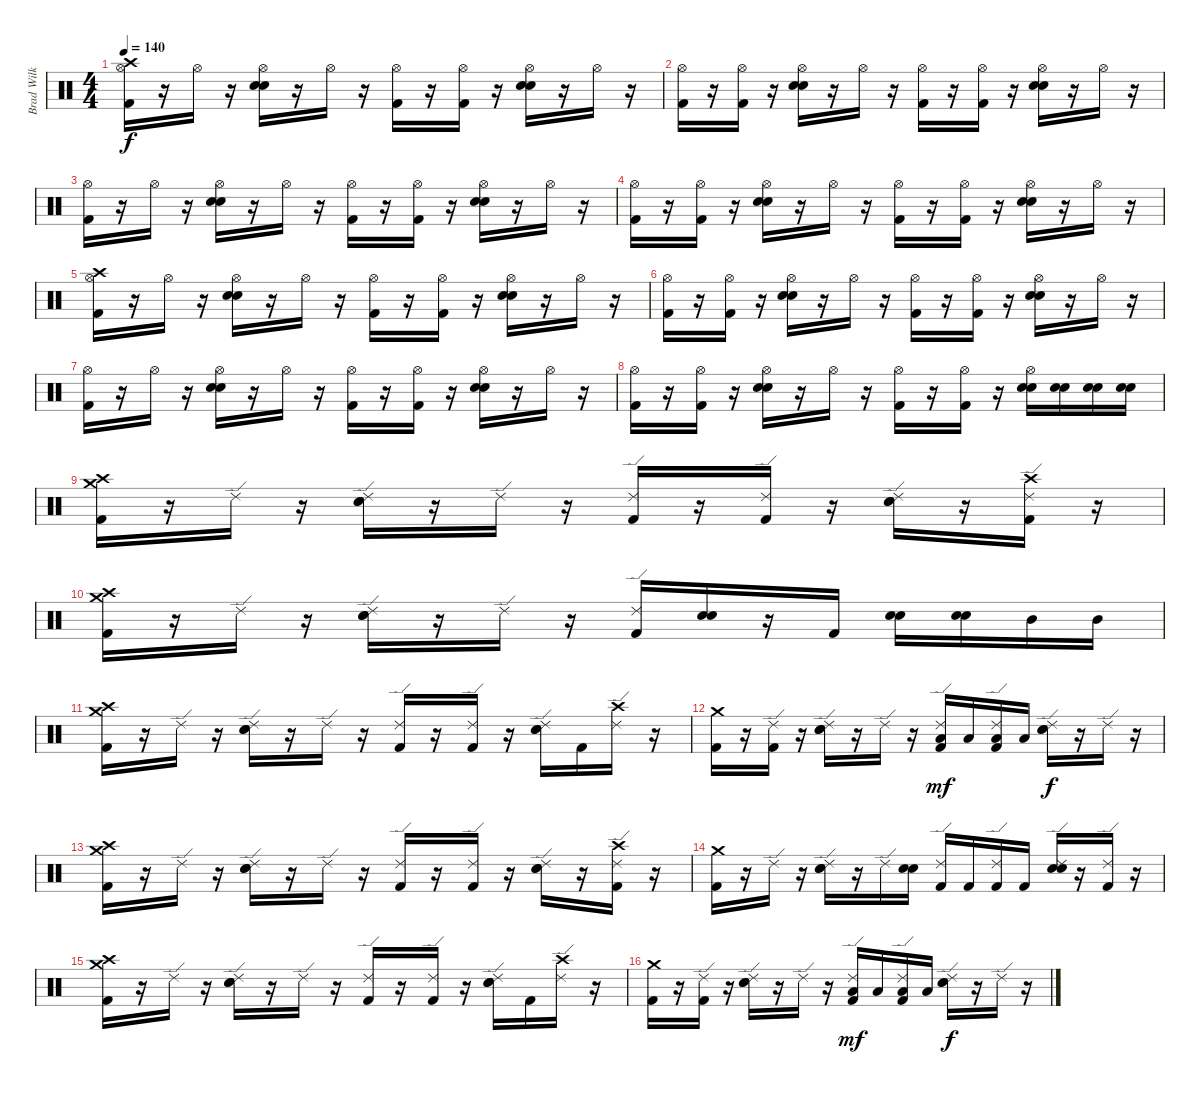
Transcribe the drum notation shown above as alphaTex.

\track ("Brad Wilk" "Brad Wilk") {instrument percussion}
\staff {score}
\articulation defaults
\ts (4 4)
\tempo 140
\clef neutral
\ks c
("Hi-Hat (open)" "Crash high (hit)" "Kick (hit) 2").16{dy f} r.16 "Hi-Hat (open)".16 r.16 ("Hi-Hat (open)" "Electric Snare (hit)" "Snare (hit) 2").16 r.16 "Hi-Hat (open)".16 r.16 ("Hi-Hat (open)" "Kick (hit) 2").16 r.16 ("Hi-Hat (open)" "Kick (hit) 2").16 r.16 ("Hi-Hat (open)" "Electric Snare (hit)" "Snare (hit) 2").16 r.16 "Hi-Hat (open)".16 r.16 |
("Hi-Hat (open)" "Kick (hit) 2").16 r.16 ("Hi-Hat (open)" "Kick (hit) 2").16 r.16 ("Hi-Hat (open)" "Electric Snare (hit)" "Snare (hit) 2").16 r.16 "Hi-Hat (open)".16 r.16 ("Hi-Hat (open)" "Kick (hit) 2").16 r.16 ("Hi-Hat (open)" "Kick (hit) 2").16 r.16 ("Hi-Hat (open)" "Electric Snare (hit)" "Snare (hit) 2").16 r.16 "Hi-Hat (open)".16 r.16 |
("Hi-Hat (open)" "Kick (hit) 2").16 r.16 "Hi-Hat (open)".16 r.16 ("Hi-Hat (open)" "Electric Snare (hit)" "Snare (hit) 2").16 r.16 "Hi-Hat (open)".16 r.16 ("Hi-Hat (open)" "Kick (hit) 2").16 r.16 ("Hi-Hat (open)" "Kick (hit) 2").16 r.16 ("Hi-Hat (open)" "Electric Snare (hit)" "Snare (hit) 2").16 r.16 "Hi-Hat (open)".16 r.16 |
("Hi-Hat (open)" "Kick (hit) 2").16 r.16 ("Hi-Hat (open)" "Kick (hit) 2").16 r.16 ("Hi-Hat (open)" "Electric Snare (hit)" "Snare (hit) 2").16 r.16 "Hi-Hat (open)".16 r.16 ("Hi-Hat (open)" "Kick (hit) 2").16 r.16 ("Hi-Hat (open)" "Kick (hit) 2").16 r.16 ("Hi-Hat (open)" "Electric Snare (hit)" "Snare (hit) 2").16 r.16 "Hi-Hat (open)".16 r.16 |
("Hi-Hat (open)" "Crash high (hit)" "Kick (hit) 2").16 r.16 "Hi-Hat (open)".16 r.16 ("Hi-Hat (open)" "Electric Snare (hit)" "Snare (hit) 2").16 r.16 "Hi-Hat (open)".16 r.16 ("Hi-Hat (open)" "Kick (hit) 2").16 r.16 ("Hi-Hat (open)" "Kick (hit) 2").16 r.16 ("Hi-Hat (open)" "Electric Snare (hit)" "Snare (hit) 2").16 r.16 "Hi-Hat (open)".16 r.16 |
("Hi-Hat (open)" "Kick (hit) 2").16 r.16 ("Hi-Hat (open)" "Kick (hit) 2").16 r.16 ("Hi-Hat (open)" "Electric Snare (hit)" "Snare (hit) 2").16 r.16 "Hi-Hat (open)".16 r.16 ("Hi-Hat (open)" "Kick (hit) 2").16 r.16 ("Hi-Hat (open)" "Kick (hit) 2").16 r.16 ("Hi-Hat (open)" "Electric Snare (hit)" "Snare (hit) 2").16 r.16 "Hi-Hat (open)".16 r.16 |
("Hi-Hat (open)" "Kick (hit) 2").16 r.16 "Hi-Hat (open)".16 r.16 ("Hi-Hat (open)" "Electric Snare (hit)" "Snare (hit) 2").16 r.16 "Hi-Hat (open)".16 r.16 ("Hi-Hat (open)" "Kick (hit) 2").16 r.16 ("Hi-Hat (open)" "Kick (hit) 2").16 r.16 ("Hi-Hat (open)" "Electric Snare (hit)" "Snare (hit) 2").16 r.16 "Hi-Hat (open)".16 r.16 |
("Hi-Hat (open)" "Kick (hit) 2").16 r.16 ("Hi-Hat (open)" "Kick (hit) 2").16 r.16 ("Hi-Hat (open)" "Electric Snare (hit)" "Snare (hit) 2").16 r.16 "Hi-Hat (open)".16 r.16 ("Hi-Hat (open)" "Kick (hit) 2").16 r.16 ("Hi-Hat (open)" "Kick (hit) 2").16 r.16 ("Hi-Hat (open)" "Electric Snare (hit)" "Snare (hit) 2").16 ("Electric Snare (hit)" "Snare (hit) 2").16 ("Electric Snare (hit)" "Snare (hit) 2").16 ("Electric Snare (hit)" "Snare (hit) 2").16 |
("Crash medium (hit)" "Crash high (hit)" "Kick (hit) 2").16 r.16 "Ride (edge) 2".16 r.16 ("Ride (edge) 2" "Electric Snare (hit)" "Snare (hit) 2").16 r.16 "Ride (edge) 2".16 r.16 ("Ride (edge) 2" "Kick (hit) 2").16 r.16 ("Ride (edge) 2" "Kick (hit) 2").16 r.16 ("Ride (edge) 2" "Electric Snare (hit)" "Snare (hit) 2").16 r.16 ("Ride (edge) 2" "Crash high (hit)" "Kick (hit) 2").16 r.16 |
("Crash medium (hit)" "Crash high (hit)" "Kick (hit) 2").16 r.16 "Ride (edge) 2".16 r.16 ("Ride (edge) 2" "Electric Snare (hit)" "Snare (hit) 2").16 r.16 "Ride (edge) 2".16 r.16 ("Ride (edge) 2" "Kick (hit) 2").16 ("Electric Snare (hit)" "Snare (hit) 2").16 r.16 "Kick (hit) 2".16 ("Electric Snare (hit)" "Snare (hit) 2").16 ("Electric Snare (hit)" "Electric Snare (hit)").16 "Mid Tom (hit)".16 "Mid Tom (hit)".16 |
("Crash medium (hit)" "Crash high (hit)" "Kick (hit) 2").16 r.16 "Ride (edge) 2".16 r.16 ("Ride (edge) 2" "Electric Snare (hit)" "Snare (hit) 2").16 r.16 "Ride (edge) 2".16 r.16 ("Ride (edge) 2" "Kick (hit) 2").16 r.16 ("Ride (edge) 2" "Kick (hit) 2").16 r.16 ("Ride (edge) 2" "Electric Snare (hit)" "Snare (hit) 2").16 "Kick (hit) 2".16 ("Ride (edge) 2" "Crash high (hit)").16 r.16 |
("Crash medium (hit)" "Kick (hit) 2").16 r.16 ("Ride (edge) 2" "Kick (hit) 2").16 r.16 ("Ride (edge) 2" "Electric Snare (hit)" "Snare (hit) 2").16 r.16 "Ride (edge) 2".16 r.16 ("Ride (edge) 2" "Low Tom (hit)" "Kick (hit) 2").16{dy mf} "Low Tom (hit)".16 ("Ride (edge) 2" "Low Tom (hit)" "Kick (hit) 2").16 "Low Tom (hit)".16 ("Ride (edge) 2" "Electric Snare (hit)" "Snare (hit) 2").16{dy f} r.16 "Ride (edge) 2".16 r.16 |
("Crash medium (hit)" "Crash high (hit)" "Kick (hit) 2").16 r.16 "Ride (edge) 2".16 r.16 ("Ride (edge) 2" "Electric Snare (hit)" "Snare (hit) 2").16 r.16 "Ride (edge) 2".16 r.16 ("Ride (edge) 2" "Kick (hit) 2").16 r.16 ("Ride (edge) 2" "Kick (hit) 2").16 r.16 ("Ride (edge) 2" "Electric Snare (hit)" "Snare (hit) 2").16 r.16 ("Ride (edge) 2" "Crash high (hit)" "Kick (hit) 2").16 r.16 |
("Crash medium (hit)" "Kick (hit) 2").16 r.16 "Ride (edge) 2".16 r.16 ("Ride (edge) 2" "Electric Snare (hit)" "Snare (hit) 2").16 r.16 "Ride (edge) 2".16 ("Electric Snare (hit)" "Snare (hit) 2").16 ("Ride (edge) 2" "Kick (hit) 2").16 "Kick (hit) 2".16 ("Ride (edge) 2" "Kick (hit) 2").16 "Kick (hit) 2".16 ("Ride (edge) 2" "Electric Snare (hit)" "Snare (hit) 2").16 r.16 ("Ride (edge) 2" "Kick (hit) 2").16 r.16 |
("Crash medium (hit)" "Crash high (hit)" "Kick (hit) 2").16 r.16 "Ride (edge) 2".16 r.16 ("Ride (edge) 2" "Electric Snare (hit)" "Snare (hit) 2").16 r.16 "Ride (edge) 2".16 r.16 ("Ride (edge) 2" "Kick (hit) 2").16 r.16 ("Ride (edge) 2" "Kick (hit) 2").16 r.16 ("Ride (edge) 2" "Electric Snare (hit)" "Snare (hit) 2").16 "Kick (hit) 2".16 ("Ride (edge) 2" "Crash high (hit)").16 r.16 |
("Crash medium (hit)" "Kick (hit) 2").16 r.16 ("Ride (edge) 2" "Kick (hit) 2").16 r.16 ("Ride (edge) 2" "Electric Snare (hit)" "Snare (hit) 2").16 r.16 "Ride (edge) 2".16 r.16 ("Ride (edge) 2" "Low Tom (hit)" "Kick (hit) 2").16{dy mf} "Low Tom (hit)".16 ("Ride (edge) 2" "Low Tom (hit)" "Kick (hit) 2").16 "Low Tom (hit)".16 ("Ride (edge) 2" "Electric Snare (hit)" "Snare (hit) 2").16{dy f} r.16 "Ride (edge) 2".16 r.16
